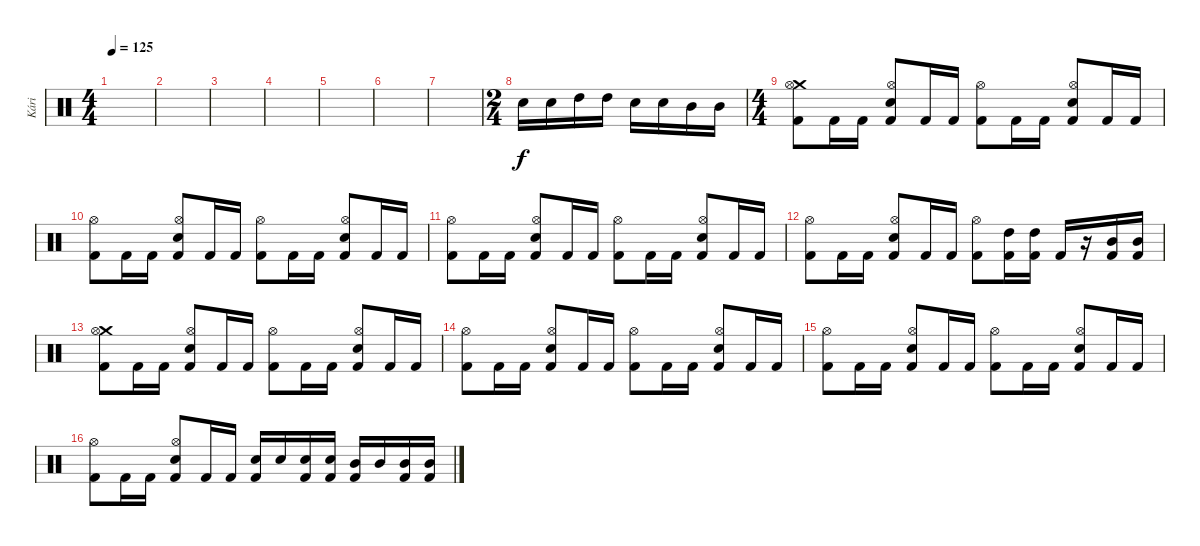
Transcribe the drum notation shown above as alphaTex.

\track ("Kári" "Kári") {instrument percussion}
\staff {score}
\articulation defaults
\ts (4 4)
\tempo 125
\clef neutral
\ks c
|
|
|
|
|
|
|
\ts (2 4)
"Snare (hit) 2".16 "Snare (hit) 2".16 "High Tom (hit)".16 "High Tom (hit)".16 "Snare (hit) 2".16 "Snare (hit) 2".16 "Mid Tom (hit)".16 "Mid Tom (hit)".16 |
\ts (4 4)
("Crash medium (hit)" "Hi-Hat (open)" "Kick (hit) 2").8 "Kick (hit) 2".16 "Kick (hit) 2".16 ("Hi-Hat (open)" "Snare (hit) 2" "Kick (hit) 2").8 "Kick (hit) 2".16 "Kick (hit) 2".16 ("Hi-Hat (open)" "Kick (hit) 2").8 "Kick (hit) 2".16 "Kick (hit) 2".16 ("Hi-Hat (open)" "Snare (hit) 2" "Kick (hit) 2").8 "Kick (hit) 2".16 "Kick (hit) 2".16 |
("Hi-Hat (open)" "Kick (hit) 2").8 "Kick (hit) 2".16 "Kick (hit) 2".16 ("Hi-Hat (open)" "Snare (hit) 2" "Kick (hit) 2").8 "Kick (hit) 2".16 "Kick (hit) 2".16 ("Hi-Hat (open)" "Kick (hit) 2").8 "Kick (hit) 2".16 "Kick (hit) 2".16 ("Hi-Hat (open)" "Snare (hit) 2" "Kick (hit) 2").8 "Kick (hit) 2".16 "Kick (hit) 2".16 |
("Hi-Hat (open)" "Kick (hit) 2").8 "Kick (hit) 2".16 "Kick (hit) 2".16 ("Hi-Hat (open)" "Snare (hit) 2" "Kick (hit) 2").8 "Kick (hit) 2".16 "Kick (hit) 2".16 ("Hi-Hat (open)" "Kick (hit) 2").8 "Kick (hit) 2".16 "Kick (hit) 2".16 ("Hi-Hat (open)" "Snare (hit) 2" "Kick (hit) 2").8 "Kick (hit) 2".16 "Kick (hit) 2".16 |
("Hi-Hat (open)" "Kick (hit) 2").8 "Kick (hit) 2".16 "Kick (hit) 2".16 ("Hi-Hat (open)" "Snare (hit) 2" "Kick (hit) 2").8 "Kick (hit) 2".16 "Kick (hit) 2".16 ("Hi-Hat (open)" "Kick (hit) 2").8 ("High Tom (hit)" "Kick (hit) 2").16 ("High Tom (hit)" "Kick (hit) 2").16 "Kick (hit) 2".16 r.16 ("Mid Tom (hit)" "Kick (hit) 2").16 ("Mid Tom (hit)" "Kick (hit) 2").16 |
("Crash medium (hit)" "Hi-Hat (open)" "Kick (hit) 2").8 "Kick (hit) 2".16 "Kick (hit) 2".16 ("Hi-Hat (open)" "Snare (hit) 2" "Kick (hit) 2").8 "Kick (hit) 2".16 "Kick (hit) 2".16 ("Hi-Hat (open)" "Kick (hit) 2").8 "Kick (hit) 2".16 "Kick (hit) 2".16 ("Hi-Hat (open)" "Snare (hit) 2" "Kick (hit) 2").8 "Kick (hit) 2".16 "Kick (hit) 2".16 |
("Hi-Hat (open)" "Kick (hit) 2").8 "Kick (hit) 2".16 "Kick (hit) 2".16 ("Hi-Hat (open)" "Snare (hit) 2" "Kick (hit) 2").8 "Kick (hit) 2".16 "Kick (hit) 2".16 ("Hi-Hat (open)" "Kick (hit) 2").8 "Kick (hit) 2".16 "Kick (hit) 2".16 ("Hi-Hat (open)" "Snare (hit) 2" "Kick (hit) 2").8 "Kick (hit) 2".16 "Kick (hit) 2".16 |
("Hi-Hat (open)" "Kick (hit) 2").8 "Kick (hit) 2".16 "Kick (hit) 2".16 ("Hi-Hat (open)" "Snare (hit) 2" "Kick (hit) 2").8 "Kick (hit) 2".16 "Kick (hit) 2".16 ("Hi-Hat (open)" "Kick (hit) 2").8 "Kick (hit) 2".16 "Kick (hit) 2".16 ("Hi-Hat (open)" "Snare (hit) 2" "Kick (hit) 2").8 "Kick (hit) 2".16 "Kick (hit) 2".16 |
("Hi-Hat (open)" "Kick (hit) 2").8 "Kick (hit) 2".16 "Kick (hit) 2".16 ("Hi-Hat (open)" "Snare (hit) 2" "Kick (hit) 2").8 "Kick (hit) 2".16 "Kick (hit) 2".16 ("Snare (hit) 2" "Kick (hit) 2").16 "Snare (hit) 2".16 ("Snare (hit) 2" "Kick (hit) 2").16 ("Snare (hit) 2" "Kick (hit) 2").16 ("Mid Tom (hit)" "Kick (hit) 2").16 "Mid Tom (hit)".16 ("Mid Tom (hit)" "Kick (hit) 2").16 ("Mid Tom (hit)" "Kick (hit) 2").16
